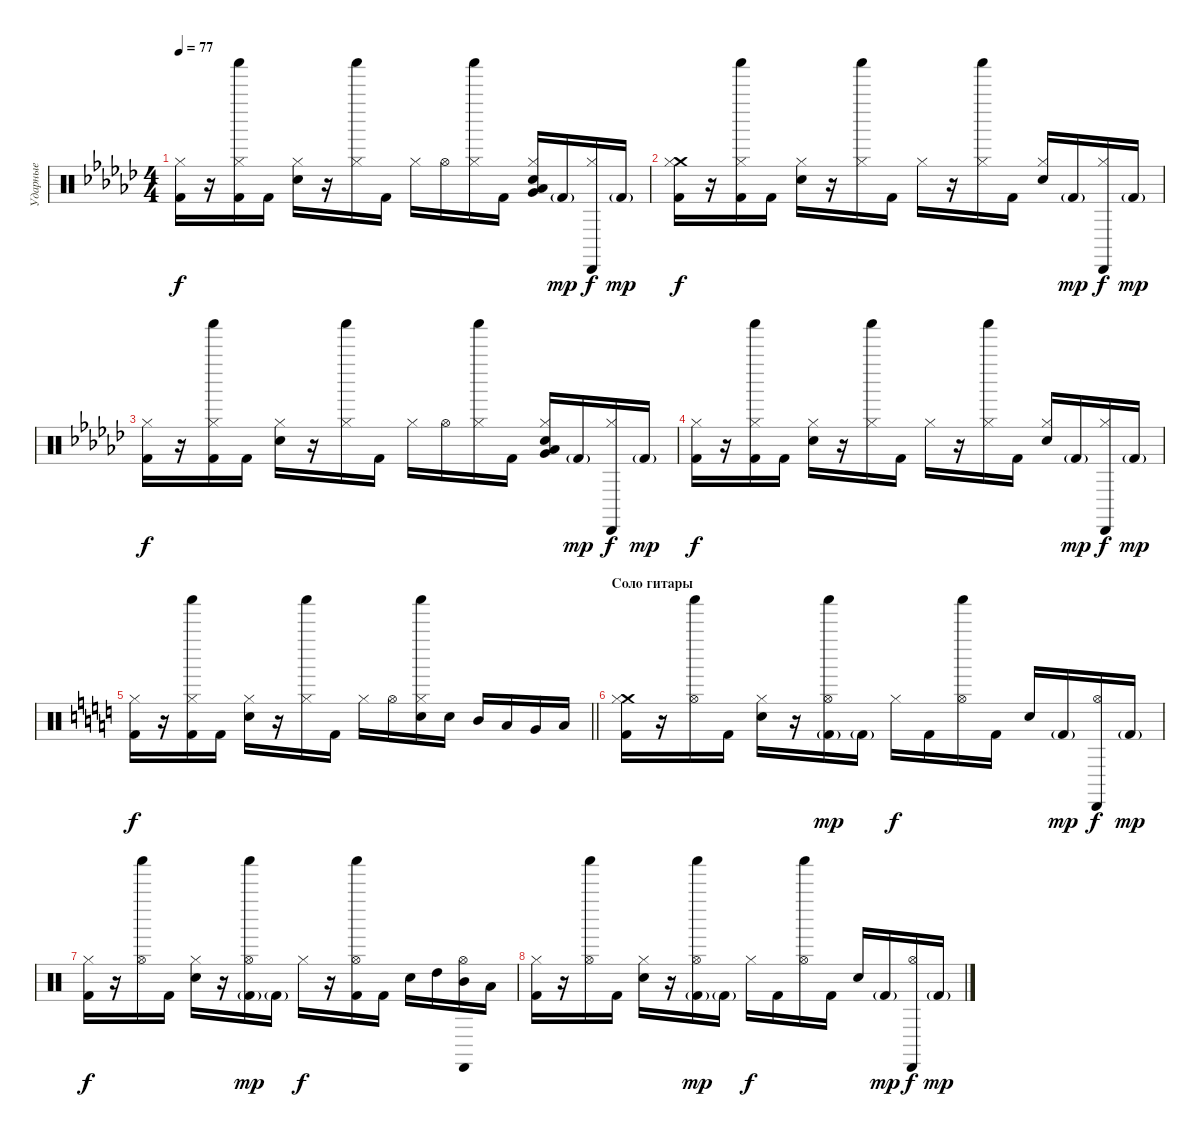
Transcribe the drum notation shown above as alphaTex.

\track ("Ударные" "Ударные") {instrument percussion}
\staff {score}
\articulation defaults
\ts (4 4)
\tempo 77
\clef neutral
\ks ebminor
("Kick (hit) 2" "Hi-Hat (closed)").16{dy f} r.16 ("Kick (hit) 2" "Hi-Hat (closed)" "Shaker (hit)").16 "Kick (hit) 2".16 ("Electric Snare (hit)" "Hi-Hat (closed)").16 r.16 ("Hi-Hat (closed)" "Shaker (hit)").16 "Kick (hit) 2".16 "Hi-Hat (closed)".16 "Hi-Hat (open)".16 ("Hi-Hat (closed)" "Shaker (hit)").16 "Kick (hit) 2".16 ("Very Low Tom (hit)" "Electric Snare (hit)" "Hi-Hat (closed)" "Low Floor Tom (hit)").16 "Kick (hit) 2"{g}.16{dy mp} ("Hi-Hat (closed)" "Cabasa (hit)").16{dy f} "Kick (hit) 2"{g}.16{dy mp} |
("Crash medium (hit)" "Kick (hit) 2" "Hi-Hat (closed)").16{dy f} r.16 ("Kick (hit) 2" "Hi-Hat (closed)" "Shaker (hit)").16 "Kick (hit) 2".16 ("Electric Snare (hit)" "Hi-Hat (closed)").16 r.16 ("Hi-Hat (closed)" "Shaker (hit)").16 "Kick (hit) 2".16 "Hi-Hat (closed)".16 r.16 ("Hi-Hat (closed)" "Shaker (hit)").16 "Kick (hit) 2".16 ("Electric Snare (hit)" "Hi-Hat (closed)").16 "Kick (hit) 2"{g}.16{dy mp} ("Hi-Hat (closed)" "Cabasa (hit)").16{dy f} "Kick (hit) 2"{g}.16{dy mp} |
("Kick (hit) 2" "Hi-Hat (closed)").16{dy f} r.16 ("Kick (hit) 2" "Hi-Hat (closed)" "Shaker (hit)").16 "Kick (hit) 2".16 ("Electric Snare (hit)" "Hi-Hat (closed)").16 r.16 ("Hi-Hat (closed)" "Shaker (hit)").16 "Kick (hit) 2".16 "Hi-Hat (closed)".16 "Hi-Hat (open)".16 ("Hi-Hat (closed)" "Shaker (hit)").16 "Kick (hit) 2".16 ("Very Low Tom (hit)" "Electric Snare (hit)" "Hi-Hat (closed)" "Low Floor Tom (hit)").16 "Kick (hit) 2"{g}.16{dy mp} ("Hi-Hat (closed)" "Cabasa (hit)").16{dy f} "Kick (hit) 2"{g}.16{dy mp} |
("Kick (hit) 2" "Hi-Hat (closed)").16{dy f} r.16 ("Kick (hit) 2" "Hi-Hat (closed)" "Shaker (hit)").16 "Kick (hit) 2".16 ("Electric Snare (hit)" "Hi-Hat (closed)").16 r.16 ("Hi-Hat (closed)" "Shaker (hit)").16 "Kick (hit) 2".16 "Hi-Hat (closed)".16 r.16 ("Hi-Hat (closed)" "Shaker (hit)").16 "Kick (hit) 2".16 ("Electric Snare (hit)" "Hi-Hat (closed)").16 "Kick (hit) 2"{g}.16{dy mp} ("Hi-Hat (closed)" "Cabasa (hit)").16{dy f} "Kick (hit) 2"{g}.16{dy mp} |
\barLineRight lightlight
\ks c
("Kick (hit) 2" "Hi-Hat (closed)").16{dy f} r.16 ("Kick (hit) 2" "Hi-Hat (closed)" "Shaker (hit)").16 "Kick (hit) 2".16 ("Electric Snare (hit)" "Hi-Hat (closed)").16 r.16 ("Hi-Hat (closed)" "Shaker (hit)").16 "Kick (hit) 2".16 "Hi-Hat (closed)".16 "Hi-Hat (open)".16 ("Electric Snare (hit)" "Hi-Hat (closed)" "Shaker (hit)").16 "Electric Snare (hit)".16 "Mid Tom (hit)".16 "Low Tom (hit)".16 "Very Low Tom (hit)".16 "Low Floor Tom (hit)".16 |
\section ("" "Соло гитары")
("Crash medium (hit)" "Kick (hit) 2" "Hi-Hat (closed)").16 r.16 ("Hi-Hat (open)" "Shaker (hit)").16 "Kick (hit) 2".16 ("Electric Snare (hit)" "Hi-Hat (closed)").16 r.16 ("Hi-Hat (open)" "Kick (hit) 2"{g} "Shaker (hit)").16{dy mp} "Kick (hit) 2"{g}.16 "Hi-Hat (closed)".16{dy f} "Kick (hit) 2".16 ("Hi-Hat (open)" "Shaker (hit)").16 "Kick (hit) 2".16 "Electric Snare (hit)".16 "Kick (hit) 2"{g}.16{dy mp} ("Hi-Hat (open)" "Cabasa (hit)").16{dy f} "Kick (hit) 2"{g}.16{dy mp} |
("Kick (hit) 2" "Hi-Hat (closed)").16{dy f} r.16 ("Hi-Hat (open)" "Shaker (hit)").16 "Kick (hit) 2".16 ("Electric Snare (hit)" "Hi-Hat (closed)").16 r.16 ("Hi-Hat (open)" "Kick (hit) 2"{g} "Shaker (hit)").16{dy mp} "Kick (hit) 2"{g}.16 "Hi-Hat (closed)".16{dy f} r.16 ("Hi-Hat (open)" "Kick (hit) 2" "Shaker (hit)").16 "Kick (hit) 2".16 "Electric Snare (hit)".16 "High Tom (hit)".16 ("Hi-Hat (open)" "Mid Tom (hit)" "Cabasa (hit)").16 "Low Tom (hit)".16 |
("Kick (hit) 2" "Hi-Hat (closed)").16 r.16 ("Hi-Hat (open)" "Shaker (hit)").16 "Kick (hit) 2".16 ("Electric Snare (hit)" "Hi-Hat (closed)").16 r.16 ("Hi-Hat (open)" "Kick (hit) 2"{g} "Shaker (hit)").16{dy mp} "Kick (hit) 2"{g}.16 "Hi-Hat (closed)".16{dy f} "Kick (hit) 2".16 ("Hi-Hat (open)" "Shaker (hit)").16 "Kick (hit) 2".16 "Electric Snare (hit)".16 "Kick (hit) 2"{g}.16{dy mp} ("Hi-Hat (open)" "Cabasa (hit)").16{dy f} "Kick (hit) 2"{g}.16{dy mp}
